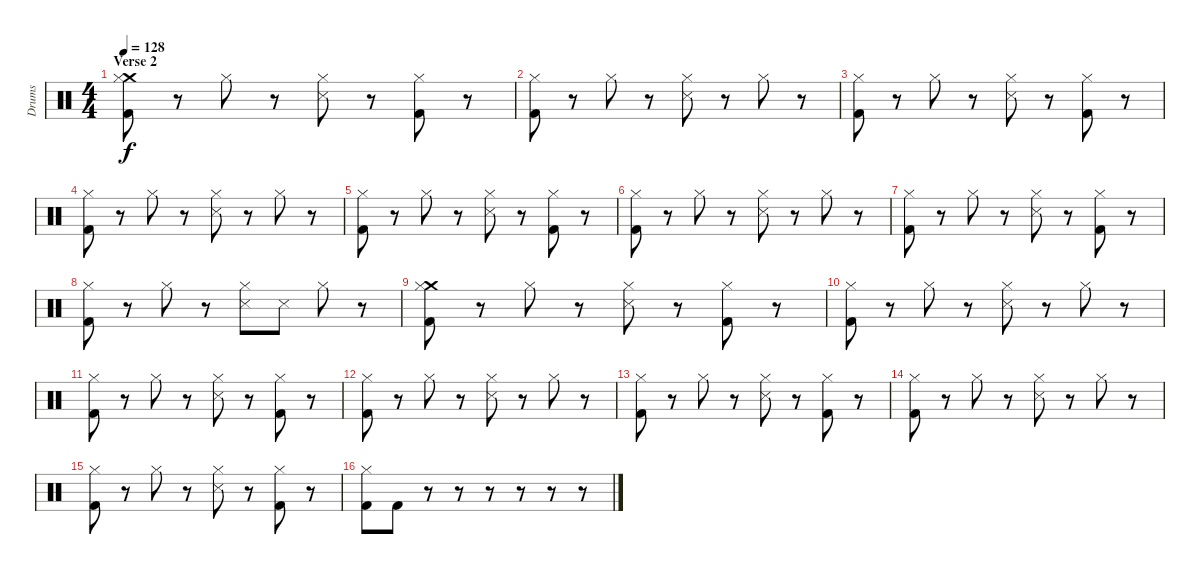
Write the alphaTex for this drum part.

\track ("Drums" "Drums") {instrument percussion}
\staff {score}
\articulation defaults
\ts (4 4)
\section ("" "Verse 2")
\tempo 128
\clef neutral
\ks c
("Crash medium (hit)" "Hi-Hat (closed)" "Kick (hit) 2").8{dy f} r.8 "Hi-Hat (closed)".8 r.8 ("Snare (side stick) 3" "Hi-Hat (closed)").8 r.8 ("Hi-Hat (closed)" "Kick (hit) 2").8 r.8 |
("Hi-Hat (closed)" "Kick (hit) 2").8 r.8 "Hi-Hat (closed)".8 r.8 ("Snare (side stick) 3" "Hi-Hat (closed)").8 r.8 "Hi-Hat (closed)".8 r.8 |
("Hi-Hat (closed)" "Kick (hit) 2").8 r.8 "Hi-Hat (closed)".8 r.8 ("Snare (side stick) 3" "Hi-Hat (closed)").8 r.8 ("Hi-Hat (closed)" "Kick (hit) 2").8 r.8 |
("Hi-Hat (closed)" "Kick (hit) 2").8 r.8 "Hi-Hat (closed)".8 r.8 ("Snare (side stick) 3" "Hi-Hat (closed)").8 r.8 "Hi-Hat (closed)".8 r.8 |
("Hi-Hat (closed)" "Kick (hit) 2").8 r.8 "Hi-Hat (closed)".8 r.8 ("Snare (side stick) 3" "Hi-Hat (closed)").8 r.8 ("Hi-Hat (closed)" "Kick (hit) 2").8 r.8 |
("Hi-Hat (closed)" "Kick (hit) 2").8 r.8 "Hi-Hat (closed)".8 r.8 ("Snare (side stick) 3" "Hi-Hat (closed)").8 r.8 "Hi-Hat (closed)".8 r.8 |
("Hi-Hat (closed)" "Kick (hit) 2").8 r.8 "Hi-Hat (closed)".8 r.8 ("Snare (side stick) 3" "Hi-Hat (closed)").8 r.8 ("Hi-Hat (closed)" "Kick (hit) 2").8 r.8 |
("Hi-Hat (closed)" "Kick (hit) 2").8 r.8 "Hi-Hat (closed)".8 r.8 ("Snare (side stick) 3" "Hi-Hat (closed)").8 "Snare (side stick) 3".8 "Hi-Hat (closed)".8 r.8 |
("Crash medium (hit)" "Hi-Hat (closed)" "Kick (hit) 2").8 r.8 "Hi-Hat (closed)".8 r.8 ("Snare (side stick) 3" "Hi-Hat (closed)").8 r.8 ("Hi-Hat (closed)" "Kick (hit) 2").8 r.8 |
("Hi-Hat (closed)" "Kick (hit) 2").8 r.8 "Hi-Hat (closed)".8 r.8 ("Snare (side stick) 3" "Hi-Hat (closed)").8 r.8 "Hi-Hat (closed)".8 r.8 |
("Hi-Hat (closed)" "Kick (hit) 2").8 r.8 "Hi-Hat (closed)".8 r.8 ("Snare (side stick) 3" "Hi-Hat (closed)").8 r.8 ("Hi-Hat (closed)" "Kick (hit) 2").8 r.8 |
("Hi-Hat (closed)" "Kick (hit) 2").8 r.8 "Hi-Hat (closed)".8 r.8 ("Snare (side stick) 3" "Hi-Hat (closed)").8 r.8 "Hi-Hat (closed)".8 r.8 |
("Hi-Hat (closed)" "Kick (hit) 2").8 r.8 "Hi-Hat (closed)".8 r.8 ("Snare (side stick) 3" "Hi-Hat (closed)").8 r.8 ("Hi-Hat (closed)" "Kick (hit) 2").8 r.8 |
("Hi-Hat (closed)" "Kick (hit) 2").8 r.8 "Hi-Hat (closed)".8 r.8 ("Snare (side stick) 3" "Hi-Hat (closed)").8 r.8 "Hi-Hat (closed)".8 r.8 |
("Hi-Hat (closed)" "Kick (hit) 2").8 r.8 "Hi-Hat (closed)".8 r.8 ("Snare (side stick) 3" "Hi-Hat (closed)").8 r.8 ("Hi-Hat (closed)" "Kick (hit) 2").8 r.8 |
("Hi-Hat (closed)" "Kick (hit) 2").8 "Kick (hit) 2".8 r.8 r.8 r.8 r.8 r.8 r.8
